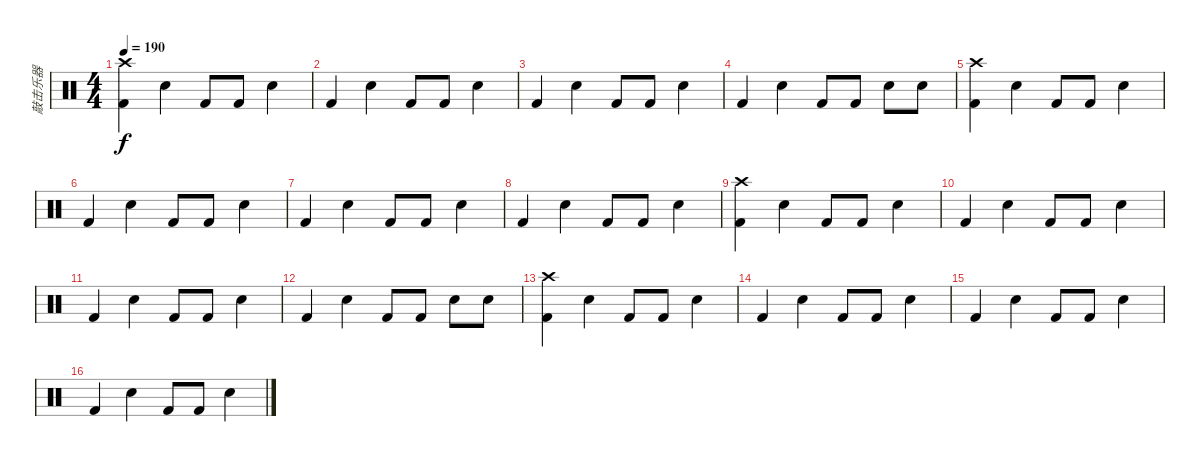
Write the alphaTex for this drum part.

\track ("敲击乐器" "敲击乐器") {instrument percussion}
\staff {score}
\articulation defaults
\ts (4 4)
\tempo 190
\clef neutral
\ks c
("Kick (hit) 2" "Crash high (hit)").4{dy f} "Snare (hit) 2".4 "Kick (hit) 2".8 "Kick (hit) 2".8 "Snare (hit) 2".4 |
"Kick (hit) 2".4 "Snare (hit) 2".4 "Kick (hit) 2".8 "Kick (hit) 2".8 "Snare (hit) 2".4 |
"Kick (hit) 2".4 "Snare (hit) 2".4 "Kick (hit) 2".8 "Kick (hit) 2".8 "Snare (hit) 2".4 |
"Kick (hit) 2".4 "Snare (hit) 2".4 "Kick (hit) 2".8 "Kick (hit) 2".8 "Snare (hit) 2".8 "Snare (hit) 2".8 |
("Kick (hit) 2" "Crash high (hit)").4 "Snare (hit) 2".4 "Kick (hit) 2".8 "Kick (hit) 2".8 "Snare (hit) 2".4 |
"Kick (hit) 2".4 "Snare (hit) 2".4 "Kick (hit) 2".8 "Kick (hit) 2".8 "Snare (hit) 2".4 |
"Kick (hit) 2".4 "Snare (hit) 2".4 "Kick (hit) 2".8 "Kick (hit) 2".8 "Snare (hit) 2".4 |
"Kick (hit) 2".4 "Snare (hit) 2".4 "Kick (hit) 2".8 "Kick (hit) 2".8 "Snare (hit) 2".4 |
("Kick (hit) 2" "Crash high (hit)").4 "Snare (hit) 2".4 "Kick (hit) 2".8 "Kick (hit) 2".8 "Snare (hit) 2".4 |
"Kick (hit) 2".4 "Snare (hit) 2".4 "Kick (hit) 2".8 "Kick (hit) 2".8 "Snare (hit) 2".4 |
"Kick (hit) 2".4 "Snare (hit) 2".4 "Kick (hit) 2".8 "Kick (hit) 2".8 "Snare (hit) 2".4 |
"Kick (hit) 2".4 "Snare (hit) 2".4 "Kick (hit) 2".8 "Kick (hit) 2".8 "Snare (hit) 2".8 "Snare (hit) 2".8 |
("Kick (hit) 2" "Crash high (hit)").4 "Snare (hit) 2".4 "Kick (hit) 2".8 "Kick (hit) 2".8 "Snare (hit) 2".4 |
"Kick (hit) 2".4 "Snare (hit) 2".4 "Kick (hit) 2".8 "Kick (hit) 2".8 "Snare (hit) 2".4 |
"Kick (hit) 2".4 "Snare (hit) 2".4 "Kick (hit) 2".8 "Kick (hit) 2".8 "Snare (hit) 2".4 |
"Kick (hit) 2".4 "Snare (hit) 2".4 "Kick (hit) 2".8 "Kick (hit) 2".8 "Snare (hit) 2".4
